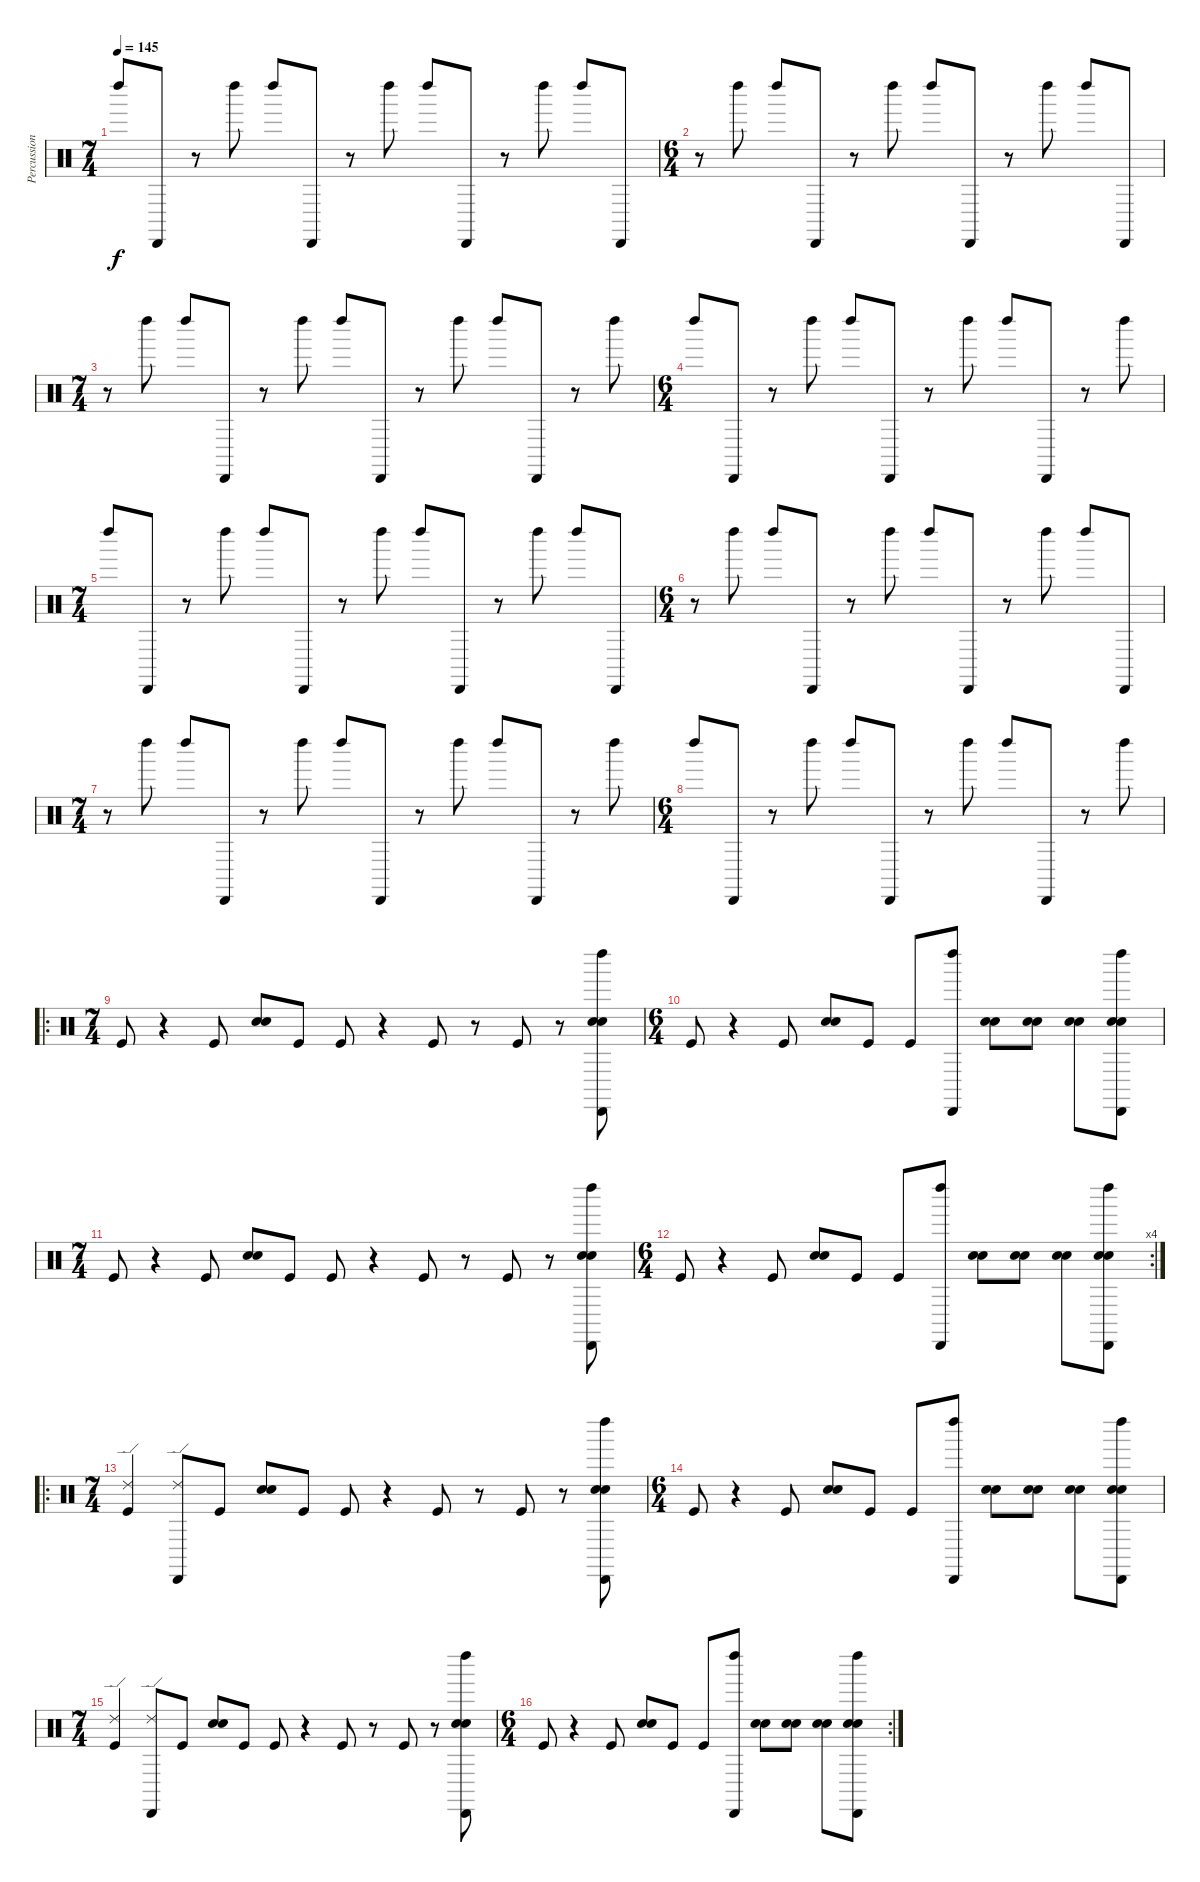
\track ("Percussion" "Percussion") {instrument percussion}
\staff {score}
\articulation defaults
\ts (7 4)
\tempo 145
\clef neutral
\ks c "Left Maraca (hit)".8{dy f} "Cabasa (hit)".8
r.8 "Left Maraca (hit)".8 "Left Maraca (hit)".8 "Cabasa (hit)".8 r.8 "Left Maraca (hit)".8 "Left Maraca (hit)".8 "Cabasa (hit)".8 r.8 "Left Maraca (hit)".8 "Left Maraca (hit)".8 "Cabasa (hit)".8 |
\ts (6 4)
r.8 "Left Maraca (hit)".8 "Left Maraca (hit)".8 "Cabasa (hit)".8 r.8 "Left Maraca (hit)".8 "Left Maraca (hit)".8 "Cabasa (hit)".8 r.8 "Left Maraca (hit)".8 "Left Maraca (hit)".8 "Cabasa (hit)".8 |
\ts (7 4)
r.8 "Left Maraca (hit)".8 "Left Maraca (hit)".8 "Cabasa (hit)".8 r.8 "Left Maraca (hit)".8 "Left Maraca (hit)".8 "Cabasa (hit)".8 r.8 "Left Maraca (hit)".8 "Left Maraca (hit)".8 "Cabasa (hit)".8 r.8 "Left Maraca (hit)".8 |
\ts (6 4)
"Left Maraca (hit)".8 "Cabasa (hit)".8 r.8 "Left Maraca (hit)".8 "Left Maraca (hit)".8 "Cabasa (hit)".8 r.8 "Left Maraca (hit)".8 "Left Maraca (hit)".8 "Cabasa (hit)".8 r.8 "Left Maraca (hit)".8 |
\ts (7 4)
"Left Maraca (hit)".8 "Cabasa (hit)".8 r.8 "Left Maraca (hit)".8 "Left Maraca (hit)".8 "Cabasa (hit)".8 r.8 "Left Maraca (hit)".8 "Left Maraca (hit)".8 "Cabasa (hit)".8 r.8 "Left Maraca (hit)".8 "Left Maraca (hit)".8 "Cabasa (hit)".8 |
\ts (6 4)
r.8 "Left Maraca (hit)".8 "Left Maraca (hit)".8 "Cabasa (hit)".8 r.8 "Left Maraca (hit)".8 "Left Maraca (hit)".8 "Cabasa (hit)".8 r.8 "Left Maraca (hit)".8 "Left Maraca (hit)".8 "Cabasa (hit)".8 |
\ts (7 4)
r.8 "Left Maraca (hit)".8 "Left Maraca (hit)".8 "Cabasa (hit)".8 r.8 "Left Maraca (hit)".8 "Left Maraca (hit)".8 "Cabasa (hit)".8 r.8 "Left Maraca (hit)".8 "Left Maraca (hit)".8 "Cabasa (hit)".8 r.8 "Left Maraca (hit)".8 |
\ts (6 4)
"Left Maraca (hit)".8 "Cabasa (hit)".8 r.8 "Left Maraca (hit)".8 "Left Maraca (hit)".8 "Cabasa (hit)".8 r.8 "Left Maraca (hit)".8 "Left Maraca (hit)".8 "Cabasa (hit)".8 r.8 "Left Maraca (hit)".8 |
\ro
\ts (7 4)
"Kick (hit)".8 r.4 "Kick (hit)".8 ("Electric Snare (hit)" "Snare (hit) 2").8 "Kick (hit)".8 "Kick (hit)".8 r.4 "Kick (hit)".8 r.8 "Kick (hit)".8 r.8 ("Cabasa (hit)" "Left Maraca (hit)" "Electric Snare (hit)" "Snare (hit) 2").8 |
\ts (6 4)
"Kick (hit)".8 r.4 "Kick (hit)".8 ("Electric Snare (hit)" "Snare (hit) 2").8 "Kick (hit)".8 "Kick (hit)".8 ("Left Maraca (hit)" "Cabasa (hit)").8 ("Electric Snare (hit)" "Snare (hit) 2").8 ("Electric Snare (hit)" "Snare (hit) 2").8 ("Electric Snare (hit)" "Snare (hit) 2").8 ("Left Maraca (hit)" "Cabasa (hit)" "Electric Snare (hit)" "Snare (hit) 2").8 |
\ts (7 4)
"Kick (hit)".8 r.4 "Kick (hit)".8 ("Electric Snare (hit)" "Snare (hit) 2").8 "Kick (hit)".8 "Kick (hit)".8 r.4 "Kick (hit)".8 r.8 "Kick (hit)".8 r.8 ("Cabasa (hit)" "Left Maraca (hit)" "Electric Snare (hit)" "Snare (hit) 2").8 |
\rc 4
\ts (6 4)
"Kick (hit)".8 r.4 "Kick (hit)".8 ("Electric Snare (hit)" "Snare (hit) 2").8 "Kick (hit)".8 "Kick (hit)".8 ("Left Maraca (hit)" "Cabasa (hit)").8 ("Electric Snare (hit)" "Snare (hit) 2").8 ("Electric Snare (hit)" "Snare (hit) 2").8 ("Electric Snare (hit)" "Snare (hit) 2").8 ("Left Maraca (hit)" "Cabasa (hit)" "Electric Snare (hit)" "Snare (hit) 2").8 |
\ro
\ts (7 4)
("Ride (edge) 2" "Kick (hit)").4 ("Ride (edge) 2" "Cabasa (hit)").8 "Kick (hit)".8 ("Electric Snare (hit)" "Snare (hit) 2").8 "Kick (hit)".8 "Kick (hit)".8 r.4 "Kick (hit)".8 r.8 "Kick (hit)".8 r.8 ("Cabasa (hit)" "Left Maraca (hit)" "Electric Snare (hit)" "Snare (hit) 2").8 |
\ts (6 4)
"Kick (hit)".8 r.4 "Kick (hit)".8 ("Electric Snare (hit)" "Snare (hit) 2").8 "Kick (hit)".8 "Kick (hit)".8 ("Left Maraca (hit)" "Cabasa (hit)").8 ("Electric Snare (hit)" "Snare (hit) 2").8 ("Electric Snare (hit)" "Snare (hit) 2").8 ("Electric Snare (hit)" "Snare (hit) 2").8 ("Left Maraca (hit)" "Cabasa (hit)" "Electric Snare (hit)" "Snare (hit) 2").8 |
\ts (7 4)
("Ride (edge) 2" "Kick (hit)").4 ("Ride (edge) 2" "Cabasa (hit)").8 "Kick (hit)".8 ("Electric Snare (hit)" "Snare (hit) 2").8 "Kick (hit)".8 "Kick (hit)".8 r.4 "Kick (hit)".8 r.8 "Kick (hit)".8 r.8 ("Cabasa (hit)" "Left Maraca (hit)" "Electric Snare (hit)" "Snare (hit) 2").8 |
\rc 2
\ts (6 4)
"Kick (hit)".8 r.4 "Kick (hit)".8 ("Electric Snare (hit)" "Snare (hit) 2").8 "Kick (hit)".8 "Kick (hit)".8 ("Left Maraca (hit)" "Cabasa (hit)").8 ("Electric Snare (hit)" "Snare (hit) 2").8 ("Electric Snare (hit)" "Snare (hit) 2").8 ("Electric Snare (hit)" "Snare (hit) 2").8 ("Left Maraca (hit)" "Cabasa (hit)" "Electric Snare (hit)" "Snare (hit) 2").8
